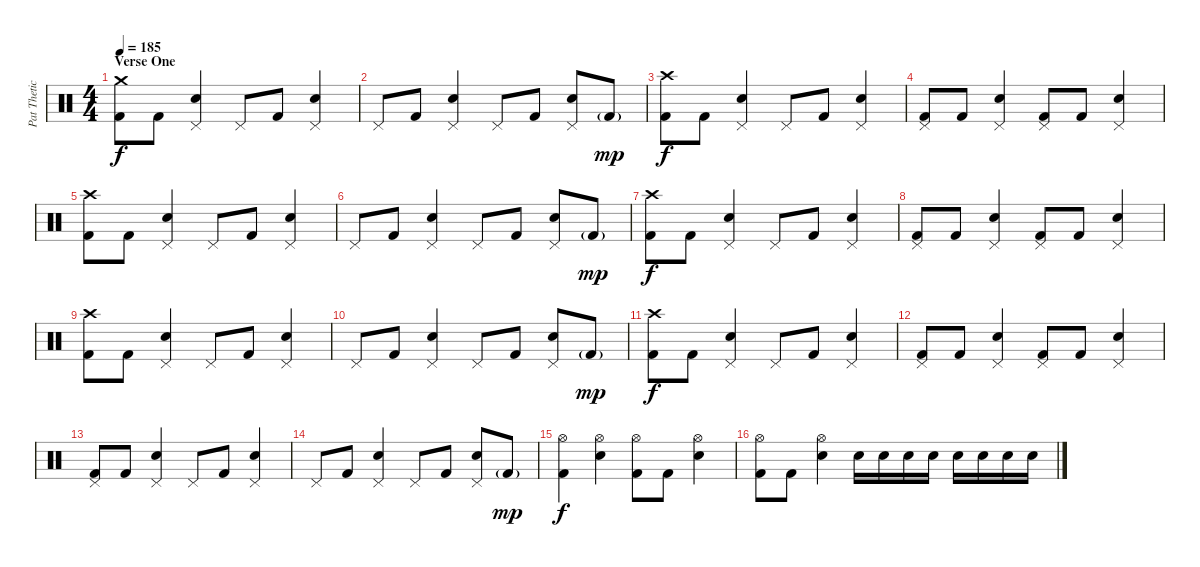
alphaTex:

\track ("Pat Thetic" "Pat Thetic") {instrument percussion}
\staff {score}
\articulation defaults
\ts (4 4)
\section ("" "Verse One")
\tempo 185
\clef neutral
\ks c
("Crash medium (hit)" "Kick (hit) 2").8{dy f} "Kick (hit) 2".8 ("Pedal Hi-Hat (hit)" "Electric Snare (hit)").4 "Pedal Hi-Hat (hit)".8 "Kick (hit) 2".8 ("Pedal Hi-Hat (hit)" "Electric Snare (hit)").4 |
"Pedal Hi-Hat (hit)".8 "Kick (hit) 2".8 ("Pedal Hi-Hat (hit)" "Electric Snare (hit)").4 "Pedal Hi-Hat (hit)".8 "Kick (hit) 2".8 ("Pedal Hi-Hat (hit)" "Electric Snare (hit)").8 "Kick (hit) 2"{g}.8{dy mp} |
("Crash high (hit)" "Kick (hit) 2").8{dy f} "Kick (hit) 2".8 ("Pedal Hi-Hat (hit)" "Electric Snare (hit)").4 "Pedal Hi-Hat (hit)".8 "Kick (hit) 2".8 ("Pedal Hi-Hat (hit)" "Electric Snare (hit)").4 |
("Pedal Hi-Hat (hit)" "Kick (hit) 2").8 "Kick (hit) 2".8 ("Pedal Hi-Hat (hit)" "Electric Snare (hit)").4 ("Pedal Hi-Hat (hit)" "Kick (hit) 2").8 "Kick (hit) 2".8 ("Pedal Hi-Hat (hit)" "Electric Snare (hit)").4 |
("Crash high (hit)" "Kick (hit) 2").8 "Kick (hit) 2".8 ("Pedal Hi-Hat (hit)" "Electric Snare (hit)").4 "Pedal Hi-Hat (hit)".8 "Kick (hit) 2".8 ("Pedal Hi-Hat (hit)" "Electric Snare (hit)").4 |
"Pedal Hi-Hat (hit)".8 "Kick (hit) 2".8 ("Pedal Hi-Hat (hit)" "Electric Snare (hit)").4 "Pedal Hi-Hat (hit)".8 "Kick (hit) 2".8 ("Pedal Hi-Hat (hit)" "Electric Snare (hit)").8 "Kick (hit) 2"{g}.8{dy mp} |
("Crash high (hit)" "Kick (hit) 2").8{dy f} "Kick (hit) 2".8 ("Pedal Hi-Hat (hit)" "Electric Snare (hit)").4 "Pedal Hi-Hat (hit)".8 "Kick (hit) 2".8 ("Pedal Hi-Hat (hit)" "Electric Snare (hit)").4 |
("Pedal Hi-Hat (hit)" "Kick (hit) 2").8 "Kick (hit) 2".8 ("Pedal Hi-Hat (hit)" "Electric Snare (hit)").4 ("Pedal Hi-Hat (hit)" "Kick (hit) 2").8 "Kick (hit) 2".8 ("Pedal Hi-Hat (hit)" "Electric Snare (hit)").4 |
("Crash high (hit)" "Kick (hit) 2").8 "Kick (hit) 2".8 ("Pedal Hi-Hat (hit)" "Electric Snare (hit)").4 "Pedal Hi-Hat (hit)".8 "Kick (hit) 2".8 ("Pedal Hi-Hat (hit)" "Electric Snare (hit)").4 |
"Pedal Hi-Hat (hit)".8 "Kick (hit) 2".8 ("Pedal Hi-Hat (hit)" "Electric Snare (hit)").4 "Pedal Hi-Hat (hit)".8 "Kick (hit) 2".8 ("Pedal Hi-Hat (hit)" "Electric Snare (hit)").8 "Kick (hit) 2"{g}.8{dy mp} |
("Crash high (hit)" "Kick (hit) 2").8{dy f} "Kick (hit) 2".8 ("Pedal Hi-Hat (hit)" "Electric Snare (hit)").4 "Pedal Hi-Hat (hit)".8 "Kick (hit) 2".8 ("Pedal Hi-Hat (hit)" "Electric Snare (hit)").4 |
("Pedal Hi-Hat (hit)" "Kick (hit) 2").8 "Kick (hit) 2".8 ("Pedal Hi-Hat (hit)" "Electric Snare (hit)").4 ("Pedal Hi-Hat (hit)" "Kick (hit) 2").8 "Kick (hit) 2".8 ("Pedal Hi-Hat (hit)" "Electric Snare (hit)").4 |
("Pedal Hi-Hat (hit)" "Kick (hit) 2").8 "Kick (hit) 2".8 ("Pedal Hi-Hat (hit)" "Electric Snare (hit)").4 "Pedal Hi-Hat (hit)".8 "Kick (hit) 2".8 ("Pedal Hi-Hat (hit)" "Electric Snare (hit)").4 |
"Pedal Hi-Hat (hit)".8 "Kick (hit) 2".8 ("Pedal Hi-Hat (hit)" "Electric Snare (hit)").4 "Pedal Hi-Hat (hit)".8 "Kick (hit) 2".8 ("Pedal Hi-Hat (hit)" "Electric Snare (hit)").8 "Kick (hit) 2"{g}.8{dy mp} |
("Hi-Hat (open)" "Kick (hit) 2").4{dy f} ("Hi-Hat (open)" "Electric Snare (hit)").4 ("Hi-Hat (open)" "Kick (hit) 2").8 "Kick (hit) 2".8 ("Hi-Hat (open)" "Electric Snare (hit)").4 |
("Hi-Hat (open)" "Kick (hit) 2").8 "Kick (hit) 2".8 ("Hi-Hat (open)" "Electric Snare (hit)").4 "Electric Snare (hit)".16 "Electric Snare (hit)".16 "Electric Snare (hit)".16 "Electric Snare (hit)".16 "Electric Snare (hit)".16 "Electric Snare (hit)".16 "Electric Snare (hit)".16 "Electric Snare (hit)".16
